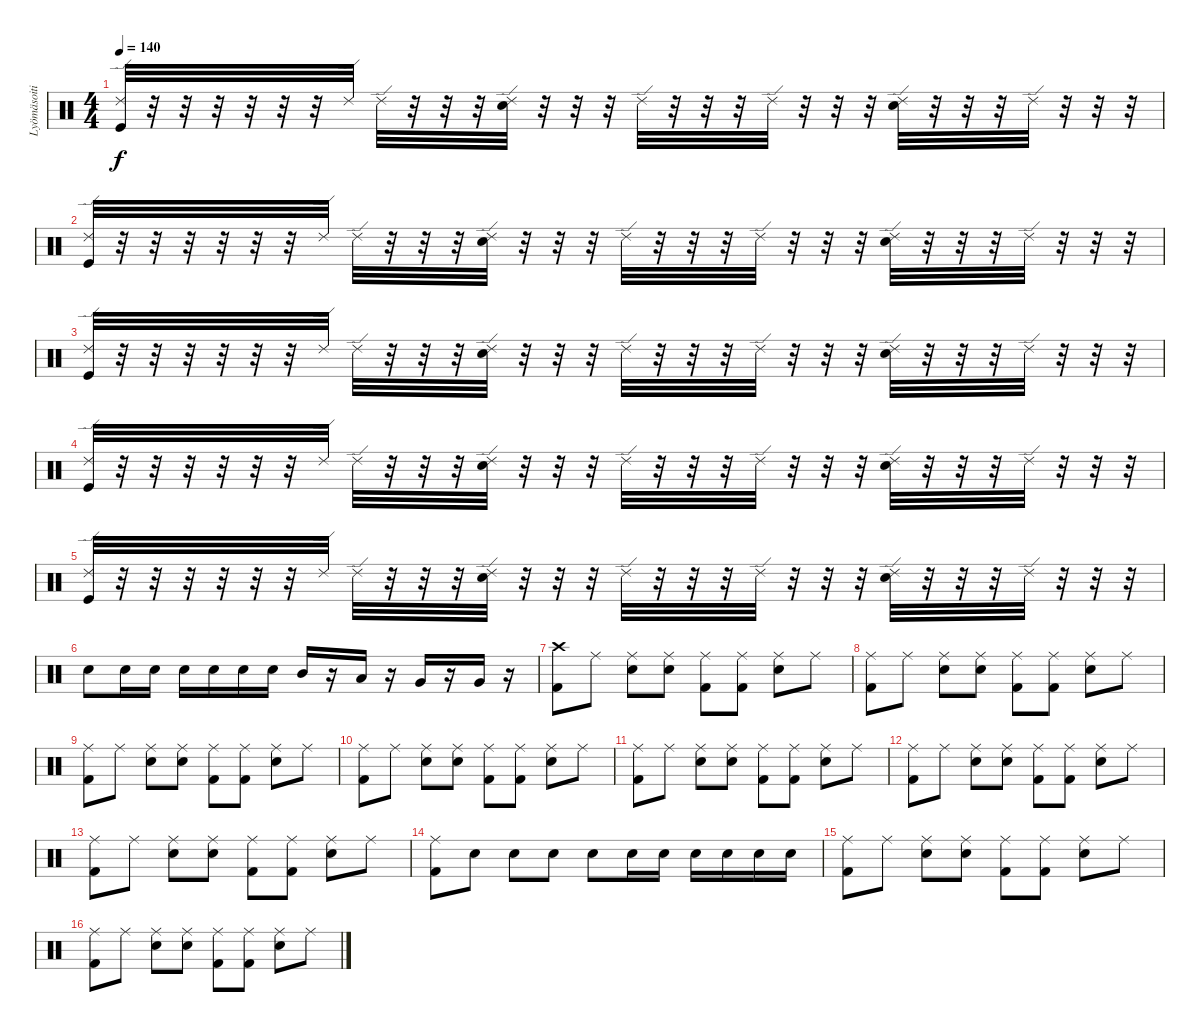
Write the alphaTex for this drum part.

\track ("Lyömäsoitin" "Lyömäsoiti") {instrument percussion}
\staff {score}
\articulation defaults
\ts (4 4)
\tempo 140
\clef neutral
\ks c
("Ride (edge) 2" "Kick (hit)").32{dy f} r.32 r.32 r.32 r.32 r.32 r.32 "Ride (edge) 2".32 "Ride (edge) 2".32 r.32 r.32 r.32 ("Ride (edge) 2" "Electric Snare (hit)").32 r.32 r.32 r.32 "Ride (edge) 2".32 r.32 r.32 r.32 "Ride (edge) 2".32 r.32 r.32 r.32 ("Ride (edge) 2" "Electric Snare (hit)").32 r.32 r.32 r.32 "Ride (edge) 2".32 r.32 r.32 r.32 |
("Ride (edge) 2" "Kick (hit)").32 r.32 r.32 r.32 r.32 r.32 r.32 "Ride (edge) 2".32 "Ride (edge) 2".32 r.32 r.32 r.32 ("Ride (edge) 2" "Electric Snare (hit)").32 r.32 r.32 r.32 "Ride (edge) 2".32 r.32 r.32 r.32 "Ride (edge) 2".32 r.32 r.32 r.32 ("Ride (edge) 2" "Electric Snare (hit)").32 r.32 r.32 r.32 "Ride (edge) 2".32 r.32 r.32 r.32 |
("Ride (edge) 2" "Kick (hit)").32 r.32 r.32 r.32 r.32 r.32 r.32 "Ride (edge) 2".32 "Ride (edge) 2".32 r.32 r.32 r.32 ("Ride (edge) 2" "Electric Snare (hit)").32 r.32 r.32 r.32 "Ride (edge) 2".32 r.32 r.32 r.32 "Ride (edge) 2".32 r.32 r.32 r.32 ("Ride (edge) 2" "Electric Snare (hit)").32 r.32 r.32 r.32 "Ride (edge) 2".32 r.32 r.32 r.32 |
("Ride (edge) 2" "Kick (hit)").32 r.32 r.32 r.32 r.32 r.32 r.32 "Ride (edge) 2".32 "Ride (edge) 2".32 r.32 r.32 r.32 ("Ride (edge) 2" "Electric Snare (hit)").32 r.32 r.32 r.32 "Ride (edge) 2".32 r.32 r.32 r.32 "Ride (edge) 2".32 r.32 r.32 r.32 ("Ride (edge) 2" "Electric Snare (hit)").32 r.32 r.32 r.32 "Ride (edge) 2".32 r.32 r.32 r.32 |
("Ride (edge) 2" "Kick (hit)").32 r.32 r.32 r.32 r.32 r.32 r.32 "Ride (edge) 2".32 "Ride (edge) 2".32 r.32 r.32 r.32 ("Ride (edge) 2" "Electric Snare (hit)").32 r.32 r.32 r.32 "Ride (edge) 2".32 r.32 r.32 r.32 "Ride (edge) 2".32 r.32 r.32 r.32 ("Ride (edge) 2" "Electric Snare (hit)").32 r.32 r.32 r.32 "Ride (edge) 2".32 r.32 r.32 r.32 |
"Electric Snare (hit)".8 "Electric Snare (hit)".16 "Electric Snare (hit)".16 "Electric Snare (hit)".16 "Electric Snare (hit)".16 "Electric Snare (hit)".16 "Electric Snare (hit)".16 "Mid Tom (hit)".16 r.16 "Low Tom (hit)".16 r.16 "Very Low Tom (hit)".16 r.16 "Very Low Tom (hit)".16 r.16 |
("Crash high (hit)" "Kick (hit) 2").8 "Ride (middle)".8 ("Ride (middle)" "Electric Snare (hit)").8 ("Ride (middle)" "Electric Snare (hit)").8 ("Ride (middle)" "Kick (hit) 2").8 ("Ride (middle)" "Kick (hit) 2").8 ("Ride (middle)" "Electric Snare (hit)").8 "Ride (middle)".8 |
("Ride (middle)" "Kick (hit) 2").8 "Ride (middle)".8 ("Ride (middle)" "Electric Snare (hit)").8 ("Ride (middle)" "Electric Snare (hit)").8 ("Ride (middle)" "Kick (hit) 2").8 ("Ride (middle)" "Kick (hit) 2").8 ("Ride (middle)" "Electric Snare (hit)").8 "Ride (middle)".8 |
("Ride (middle)" "Kick (hit) 2").8 "Ride (middle)".8 ("Ride (middle)" "Electric Snare (hit)").8 ("Ride (middle)" "Electric Snare (hit)").8 ("Ride (middle)" "Kick (hit) 2").8 ("Ride (middle)" "Kick (hit) 2").8 ("Ride (middle)" "Electric Snare (hit)").8 "Ride (middle)".8 |
("Ride (middle)" "Kick (hit) 2").8 "Ride (middle)".8 ("Ride (middle)" "Electric Snare (hit)").8 ("Ride (middle)" "Electric Snare (hit)").8 ("Ride (middle)" "Kick (hit) 2").8 ("Ride (middle)" "Kick (hit) 2").8 ("Ride (middle)" "Electric Snare (hit)").8 "Ride (middle)".8 |
("Ride (middle)" "Kick (hit) 2").8 "Ride (middle)".8 ("Ride (middle)" "Electric Snare (hit)").8 ("Ride (middle)" "Electric Snare (hit)").8 ("Ride (middle)" "Kick (hit) 2").8 ("Ride (middle)" "Kick (hit) 2").8 ("Ride (middle)" "Electric Snare (hit)").8 "Ride (middle)".8 |
("Ride (middle)" "Kick (hit) 2").8 "Ride (middle)".8 ("Ride (middle)" "Electric Snare (hit)").8 ("Ride (middle)" "Electric Snare (hit)").8 ("Ride (middle)" "Kick (hit) 2").8 ("Ride (middle)" "Kick (hit) 2").8 ("Ride (middle)" "Electric Snare (hit)").8 "Ride (middle)".8 |
("Ride (middle)" "Kick (hit) 2").8 "Ride (middle)".8 ("Ride (middle)" "Electric Snare (hit)").8 ("Ride (middle)" "Electric Snare (hit)").8 ("Ride (middle)" "Kick (hit) 2").8 ("Ride (middle)" "Kick (hit) 2").8 ("Ride (middle)" "Electric Snare (hit)").8 "Ride (middle)".8 |
("Ride (middle)" "Kick (hit) 2").8 "Electric Snare (hit)".8 "Electric Snare (hit)".8 "Electric Snare (hit)".8 "Electric Snare (hit)".8 "Electric Snare (hit)".16 "Electric Snare (hit)".16 "Electric Snare (hit)".16 "Electric Snare (hit)".16 "Electric Snare (hit)".16 "Electric Snare (hit)".16 |
("Ride (middle)" "Kick (hit) 2").8 "Ride (middle)".8 ("Ride (middle)" "Electric Snare (hit)").8 ("Ride (middle)" "Electric Snare (hit)").8 ("Ride (middle)" "Kick (hit) 2").8 ("Ride (middle)" "Kick (hit) 2").8 ("Ride (middle)" "Electric Snare (hit)").8 "Ride (middle)".8 |
("Ride (middle)" "Kick (hit) 2").8 "Ride (middle)".8 ("Ride (middle)" "Electric Snare (hit)").8 ("Ride (middle)" "Electric Snare (hit)").8 ("Ride (middle)" "Kick (hit) 2").8 ("Ride (middle)" "Kick (hit) 2").8 ("Ride (middle)" "Electric Snare (hit)").8 "Ride (middle)".8
